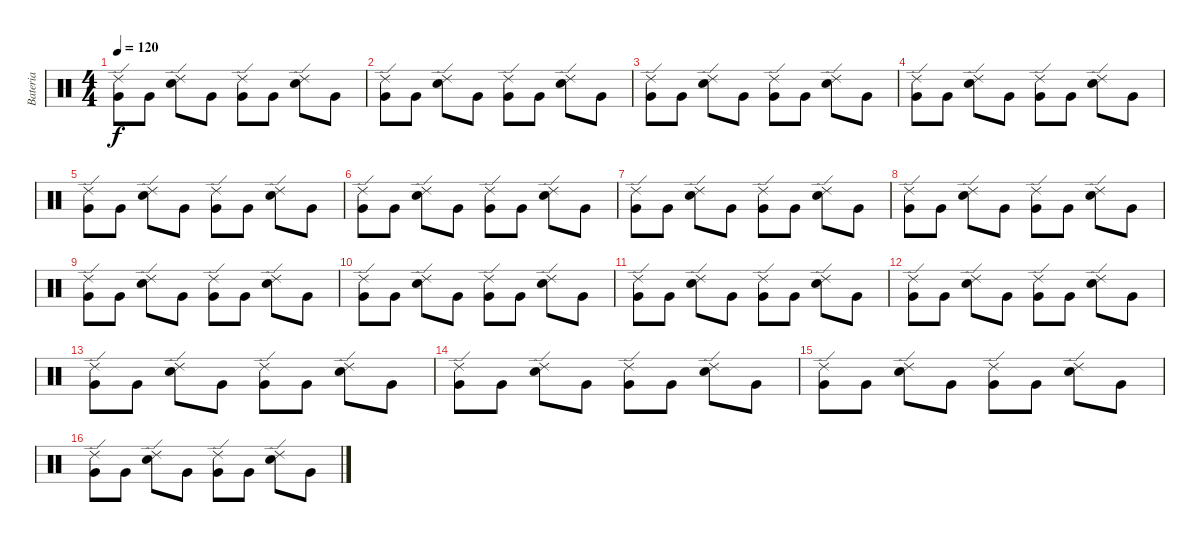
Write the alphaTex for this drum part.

\track ("Bateria" "Bateria") {instrument percussion}
\staff {score}
\articulation defaults
\ts (4 4)
\tempo 120
\clef neutral
\ks c
("Ride (edge) 2" "Very Low Tom (hit)").8{dy f} "Very Low Tom (hit)".8 ("Snare (hit) 2" "Ride (edge) 2").8 "Very Low Tom (hit)".8 ("Very Low Tom (hit)" "Ride (edge) 2").8 "Very Low Tom (hit)".8 ("Snare (hit) 2" "Ride (edge) 2").8 "Very Low Tom (hit)".8 |
("Ride (edge) 2" "Very Low Tom (hit)").8 "Very Low Tom (hit)".8 ("Snare (hit) 2" "Ride (edge) 2").8 "Very Low Tom (hit)".8 ("Very Low Tom (hit)" "Ride (edge) 2").8 "Very Low Tom (hit)".8 ("Snare (hit) 2" "Ride (edge) 2").8 "Very Low Tom (hit)".8 |
("Ride (edge) 2" "Very Low Tom (hit)").8 "Very Low Tom (hit)".8 ("Snare (hit) 2" "Ride (edge) 2").8 "Very Low Tom (hit)".8 ("Very Low Tom (hit)" "Ride (edge) 2").8 "Very Low Tom (hit)".8 ("Snare (hit) 2" "Ride (edge) 2").8 "Very Low Tom (hit)".8 |
("Ride (edge) 2" "Very Low Tom (hit)").8 "Very Low Tom (hit)".8 ("Snare (hit) 2" "Ride (edge) 2").8 "Very Low Tom (hit)".8 ("Very Low Tom (hit)" "Ride (edge) 2").8 "Very Low Tom (hit)".8 ("Snare (hit) 2" "Ride (edge) 2").8 "Very Low Tom (hit)".8 |
("Ride (edge) 2" "Very Low Tom (hit)").8 "Very Low Tom (hit)".8 ("Snare (hit) 2" "Ride (edge) 2").8 "Very Low Tom (hit)".8 ("Very Low Tom (hit)" "Ride (edge) 2").8 "Very Low Tom (hit)".8 ("Snare (hit) 2" "Ride (edge) 2").8 "Very Low Tom (hit)".8 |
("Ride (edge) 2" "Very Low Tom (hit)").8 "Very Low Tom (hit)".8 ("Snare (hit) 2" "Ride (edge) 2").8 "Very Low Tom (hit)".8 ("Very Low Tom (hit)" "Ride (edge) 2").8 "Very Low Tom (hit)".8 ("Snare (hit) 2" "Ride (edge) 2").8 "Very Low Tom (hit)".8 |
("Ride (edge) 2" "Very Low Tom (hit)").8 "Very Low Tom (hit)".8 ("Snare (hit) 2" "Ride (edge) 2").8 "Very Low Tom (hit)".8 ("Very Low Tom (hit)" "Ride (edge) 2").8 "Very Low Tom (hit)".8 ("Snare (hit) 2" "Ride (edge) 2").8 "Very Low Tom (hit)".8 |
("Ride (edge) 2" "Very Low Tom (hit)").8 "Very Low Tom (hit)".8 ("Snare (hit) 2" "Ride (edge) 2").8 "Very Low Tom (hit)".8 ("Very Low Tom (hit)" "Ride (edge) 2").8 "Very Low Tom (hit)".8 ("Snare (hit) 2" "Ride (edge) 2").8 "Very Low Tom (hit)".8 |
("Ride (edge) 2" "Very Low Tom (hit)").8 "Very Low Tom (hit)".8 ("Snare (hit) 2" "Ride (edge) 2").8 "Very Low Tom (hit)".8 ("Very Low Tom (hit)" "Ride (edge) 2").8 "Very Low Tom (hit)".8 ("Snare (hit) 2" "Ride (edge) 2").8 "Very Low Tom (hit)".8 |
("Ride (edge) 2" "Very Low Tom (hit)").8 "Very Low Tom (hit)".8 ("Snare (hit) 2" "Ride (edge) 2").8 "Very Low Tom (hit)".8 ("Very Low Tom (hit)" "Ride (edge) 2").8 "Very Low Tom (hit)".8 ("Snare (hit) 2" "Ride (edge) 2").8 "Very Low Tom (hit)".8 |
("Ride (edge) 2" "Very Low Tom (hit)").8 "Very Low Tom (hit)".8 ("Snare (hit) 2" "Ride (edge) 2").8 "Very Low Tom (hit)".8 ("Very Low Tom (hit)" "Ride (edge) 2").8 "Very Low Tom (hit)".8 ("Snare (hit) 2" "Ride (edge) 2").8 "Very Low Tom (hit)".8 |
("Ride (edge) 2" "Very Low Tom (hit)").8 "Very Low Tom (hit)".8 ("Snare (hit) 2" "Ride (edge) 2").8 "Very Low Tom (hit)".8 ("Very Low Tom (hit)" "Ride (edge) 2").8 "Very Low Tom (hit)".8 ("Snare (hit) 2" "Ride (edge) 2").8 "Very Low Tom (hit)".8 |
("Ride (edge) 2" "Very Low Tom (hit)").8 "Very Low Tom (hit)".8 ("Snare (hit) 2" "Ride (edge) 2").8 "Very Low Tom (hit)".8 ("Very Low Tom (hit)" "Ride (edge) 2").8 "Very Low Tom (hit)".8 ("Snare (hit) 2" "Ride (edge) 2").8 "Very Low Tom (hit)".8 |
("Ride (edge) 2" "Very Low Tom (hit)").8 "Very Low Tom (hit)".8 ("Snare (hit) 2" "Ride (edge) 2").8 "Very Low Tom (hit)".8 ("Very Low Tom (hit)" "Ride (edge) 2").8 "Very Low Tom (hit)".8 ("Snare (hit) 2" "Ride (edge) 2").8 "Very Low Tom (hit)".8 |
("Ride (edge) 2" "Very Low Tom (hit)").8 "Very Low Tom (hit)".8 ("Snare (hit) 2" "Ride (edge) 2").8 "Very Low Tom (hit)".8 ("Very Low Tom (hit)" "Ride (edge) 2").8 "Very Low Tom (hit)".8 ("Snare (hit) 2" "Ride (edge) 2").8 "Very Low Tom (hit)".8 |
("Ride (edge) 2" "Very Low Tom (hit)").8 "Very Low Tom (hit)".8 ("Snare (hit) 2" "Ride (edge) 2").8 "Very Low Tom (hit)".8 ("Very Low Tom (hit)" "Ride (edge) 2").8 "Very Low Tom (hit)".8 ("Snare (hit) 2" "Ride (edge) 2").8 "Very Low Tom (hit)".8
